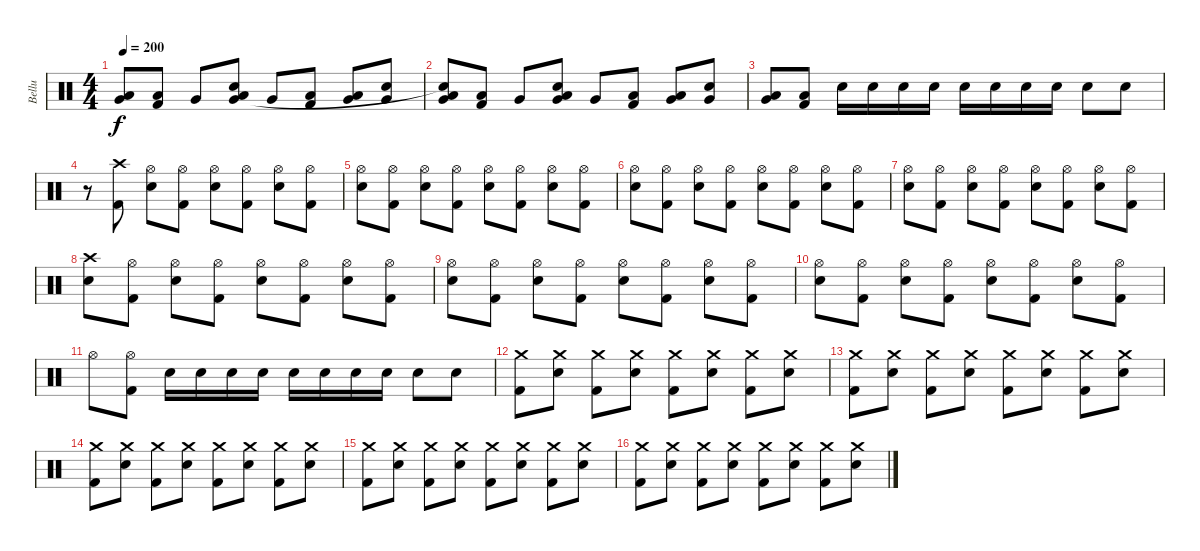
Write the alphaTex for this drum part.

\track ("Bellu" "Bellu") {instrument percussion}
\staff {score}
\articulation defaults
\ts (4 4)
\tempo 200
\clef neutral
\ks c
("Low Floor Tom (hit)" "Very Low Tom (hit)").8{dy f} ("Kick (hit) 2" "Low Floor Tom (hit)").8 "Very Low Tom (hit)".8 ("Electric Snare (hit)" "Low Floor Tom (hit)" "Very Low Tom (hit)").8 "Very Low Tom (hit)".8 ("Kick (hit) 2" "Low Floor Tom (hit)").8 ("Low Floor Tom (hit)" "Very Low Tom (hit)").8 ("Electric Snare (hit)" "Very Low Tom (hit)").8 |
("Low Floor Tom (hit)" "Very Low Tom (hit)" "Snare (hit)"{t}).8 ("Kick (hit) 2" "Low Floor Tom (hit)").8 "Very Low Tom (hit)".8 ("Electric Snare (hit)" "Low Floor Tom (hit)" "Very Low Tom (hit)").8 "Very Low Tom (hit)".8 ("Kick (hit) 2" "Low Floor Tom (hit)").8 ("Low Floor Tom (hit)" "Very Low Tom (hit)").8 ("Electric Snare (hit)" "Very Low Tom (hit)").8 |
("Low Floor Tom (hit)" "Very Low Tom (hit)").8 ("Kick (hit) 2" "Low Floor Tom (hit)").8 "Electric Snare (hit)".16 "Electric Snare (hit)".16 "Electric Snare (hit)".16 "Electric Snare (hit)".16 "Electric Snare (hit)".16 "Electric Snare (hit)".16 "Electric Snare (hit)".16 "Electric Snare (hit)".16 "Electric Snare (hit)".8 "Electric Snare (hit)".8 |
r.8 ("Crash high (hit)" "Kick (hit) 2").8 ("Hi-Hat (open)" "Electric Snare (hit)").8 ("Hi-Hat (open)" "Kick (hit) 2").8 ("Hi-Hat (open)" "Electric Snare (hit)").8 ("Hi-Hat (open)" "Kick (hit) 2").8 ("Hi-Hat (open)" "Electric Snare (hit)").8 ("Hi-Hat (open)" "Kick (hit) 2").8 |
("Hi-Hat (open)" "Electric Snare (hit)").8 ("Hi-Hat (open)" "Kick (hit) 2").8 ("Hi-Hat (open)" "Electric Snare (hit)").8 ("Hi-Hat (open)" "Kick (hit) 2").8 ("Hi-Hat (open)" "Electric Snare (hit)").8 ("Hi-Hat (open)" "Kick (hit) 2").8 ("Hi-Hat (open)" "Electric Snare (hit)").8 ("Hi-Hat (open)" "Kick (hit) 2").8 |
("Hi-Hat (open)" "Electric Snare (hit)").8 ("Hi-Hat (open)" "Kick (hit) 2").8 ("Hi-Hat (open)" "Electric Snare (hit)").8 ("Hi-Hat (open)" "Kick (hit) 2").8 ("Hi-Hat (open)" "Electric Snare (hit)").8 ("Hi-Hat (open)" "Kick (hit) 2").8 ("Hi-Hat (open)" "Electric Snare (hit)").8 ("Hi-Hat (open)" "Kick (hit) 2").8 |
("Hi-Hat (open)" "Electric Snare (hit)").8 ("Hi-Hat (open)" "Kick (hit) 2").8 ("Hi-Hat (open)" "Electric Snare (hit)").8 ("Hi-Hat (open)" "Kick (hit) 2").8 ("Hi-Hat (open)" "Electric Snare (hit)").8 ("Hi-Hat (open)" "Kick (hit) 2").8 ("Hi-Hat (open)" "Electric Snare (hit)").8 ("Hi-Hat (open)" "Kick (hit) 2").8 |
("Crash high (hit)" "Electric Snare (hit)").8 ("Hi-Hat (open)" "Kick (hit) 2").8 ("Hi-Hat (open)" "Electric Snare (hit)").8 ("Hi-Hat (open)" "Kick (hit) 2").8 ("Hi-Hat (open)" "Electric Snare (hit)").8 ("Hi-Hat (open)" "Kick (hit) 2").8 ("Hi-Hat (open)" "Electric Snare (hit)").8 ("Hi-Hat (open)" "Kick (hit) 2").8 |
("Hi-Hat (open)" "Electric Snare (hit)").8 ("Hi-Hat (open)" "Kick (hit) 2").8 ("Hi-Hat (open)" "Electric Snare (hit)").8 ("Hi-Hat (open)" "Kick (hit) 2").8 ("Hi-Hat (open)" "Electric Snare (hit)").8 ("Hi-Hat (open)" "Kick (hit) 2").8 ("Hi-Hat (open)" "Electric Snare (hit)").8 ("Hi-Hat (open)" "Kick (hit) 2").8 |
("Hi-Hat (open)" "Electric Snare (hit)").8 ("Hi-Hat (open)" "Kick (hit) 2").8 ("Hi-Hat (open)" "Electric Snare (hit)").8 ("Hi-Hat (open)" "Kick (hit) 2").8 ("Hi-Hat (open)" "Electric Snare (hit)").8 ("Hi-Hat (open)" "Kick (hit) 2").8 ("Hi-Hat (open)" "Electric Snare (hit)").8 ("Hi-Hat (open)" "Kick (hit) 2").8 |
"Hi-Hat (open)".8 ("Kick (hit) 2" "Hi-Hat (open)").8 "Electric Snare (hit)".16 "Electric Snare (hit)".16 "Electric Snare (hit)".16 "Electric Snare (hit)".16 "Electric Snare (hit)".16 "Electric Snare (hit)".16 "Electric Snare (hit)".16 "Electric Snare (hit)".16 "Electric Snare (hit)".8 "Electric Snare (hit)".8 |
("Crash medium (hit)" "Kick (hit) 2").8 ("Crash medium (hit)" "Electric Snare (hit)").8 ("Crash medium (hit)" "Kick (hit) 2").8 ("Crash medium (hit)" "Electric Snare (hit)").8 ("Crash medium (hit)" "Kick (hit) 2").8 ("Crash medium (hit)" "Electric Snare (hit)").8 ("Crash medium (hit)" "Kick (hit) 2").8 ("Crash medium (hit)" "Electric Snare (hit)").8 |
("Crash medium (hit)" "Kick (hit) 2").8 ("Crash medium (hit)" "Electric Snare (hit)").8 ("Crash medium (hit)" "Kick (hit) 2").8 ("Crash medium (hit)" "Electric Snare (hit)").8 ("Crash medium (hit)" "Kick (hit) 2").8 ("Crash medium (hit)" "Electric Snare (hit)").8 ("Crash medium (hit)" "Kick (hit) 2").8 ("Crash medium (hit)" "Electric Snare (hit)").8 |
("Crash medium (hit)" "Kick (hit) 2").8 ("Crash medium (hit)" "Electric Snare (hit)").8 ("Crash medium (hit)" "Kick (hit) 2").8 ("Crash medium (hit)" "Electric Snare (hit)").8 ("Crash medium (hit)" "Kick (hit) 2").8 ("Crash medium (hit)" "Electric Snare (hit)").8 ("Crash medium (hit)" "Kick (hit) 2").8 ("Crash medium (hit)" "Electric Snare (hit)").8 |
("Crash medium (hit)" "Kick (hit) 2").8 ("Crash medium (hit)" "Electric Snare (hit)").8 ("Crash medium (hit)" "Kick (hit) 2").8 ("Crash medium (hit)" "Electric Snare (hit)").8 ("Crash medium (hit)" "Kick (hit) 2").8 ("Crash medium (hit)" "Electric Snare (hit)").8 ("Crash medium (hit)" "Kick (hit) 2").8 ("Crash medium (hit)" "Electric Snare (hit)").8 |
("Crash medium (hit)" "Kick (hit) 2").8 ("Crash medium (hit)" "Electric Snare (hit)").8 ("Crash medium (hit)" "Kick (hit) 2").8 ("Crash medium (hit)" "Electric Snare (hit)").8 ("Crash medium (hit)" "Kick (hit) 2").8 ("Crash medium (hit)" "Electric Snare (hit)").8 ("Crash medium (hit)" "Kick (hit) 2").8 ("Crash medium (hit)" "Electric Snare (hit)").8
